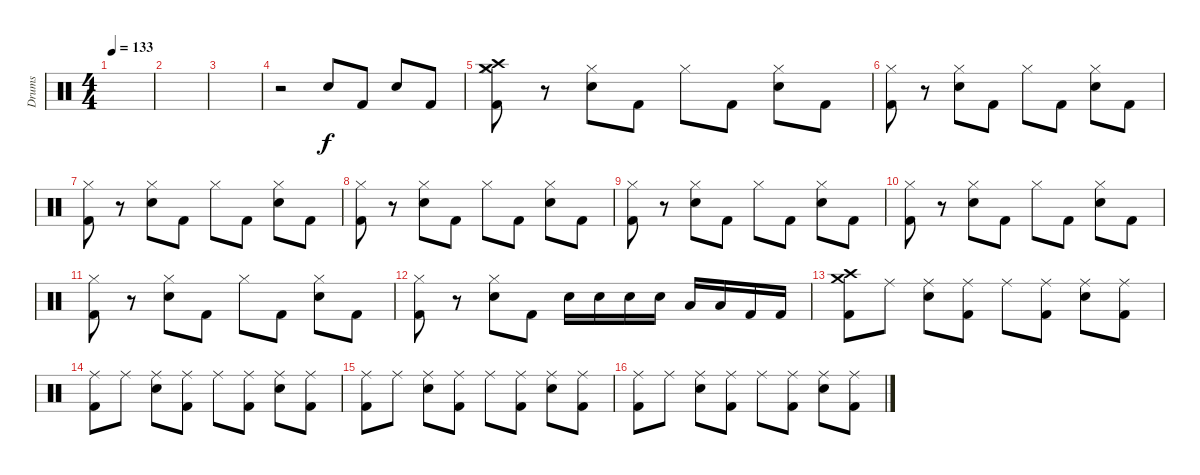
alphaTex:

\track ("Drums" "Drums") {instrument percussion}
\staff {score}
\articulation defaults
\ts (4 4)
\tempo 133
\clef neutral
\ks c
|
|
|
r.2 "Snare (hit) 2".8 "Kick (hit) 2".8 "Snare (hit) 2".8 "Kick (hit) 2".8 |
("Crash high (hit)" "Crash medium (hit)" "Hi-Hat (closed)" "Kick (hit) 2").8 r.8 ("Hi-Hat (closed)" "Snare (hit) 2").8 "Kick (hit) 2".8 "Hi-Hat (closed)".8 "Kick (hit) 2".8 ("Hi-Hat (closed)" "Snare (hit) 2").8 "Kick (hit) 2".8 |
("Hi-Hat (closed)" "Kick (hit) 2").8 r.8 ("Hi-Hat (closed)" "Snare (hit) 2").8 "Kick (hit) 2".8 "Hi-Hat (closed)".8 "Kick (hit) 2".8 ("Hi-Hat (closed)" "Snare (hit) 2").8 "Kick (hit) 2".8 |
("Hi-Hat (closed)" "Kick (hit) 2").8 r.8 ("Hi-Hat (closed)" "Snare (hit) 2").8 "Kick (hit) 2".8 "Hi-Hat (closed)".8 "Kick (hit) 2".8 ("Hi-Hat (closed)" "Snare (hit) 2").8 "Kick (hit) 2".8 |
("Hi-Hat (closed)" "Kick (hit) 2").8 r.8 ("Hi-Hat (closed)" "Snare (hit) 2").8 "Kick (hit) 2".8 "Hi-Hat (closed)".8 "Kick (hit) 2".8 ("Hi-Hat (closed)" "Snare (hit) 2").8 "Kick (hit) 2".8 |
("Hi-Hat (closed)" "Kick (hit) 2").8 r.8 ("Hi-Hat (closed)" "Snare (hit) 2").8 "Kick (hit) 2".8 "Hi-Hat (closed)".8 "Kick (hit) 2".8 ("Hi-Hat (closed)" "Snare (hit) 2").8 "Kick (hit) 2".8 |
("Hi-Hat (closed)" "Kick (hit) 2").8 r.8 ("Hi-Hat (closed)" "Snare (hit) 2").8 "Kick (hit) 2".8 "Hi-Hat (closed)".8 "Kick (hit) 2".8 ("Hi-Hat (closed)" "Snare (hit) 2").8 "Kick (hit) 2".8 |
("Hi-Hat (closed)" "Kick (hit) 2").8 r.8 ("Hi-Hat (closed)" "Snare (hit) 2").8 "Kick (hit) 2".8 "Hi-Hat (closed)".8 "Kick (hit) 2".8 ("Hi-Hat (closed)" "Snare (hit) 2").8 "Kick (hit) 2".8 |
("Hi-Hat (closed)" "Kick (hit) 2").8 r.8 ("Hi-Hat (closed)" "Snare (hit) 2").8 "Kick (hit) 2".8 "Snare (hit) 2".16 "Snare (hit) 2".16 "Snare (hit) 2".16 "Snare (hit) 2".16 "Low Tom (hit)".16 "Low Tom (hit)".16 "Kick (hit) 2".16 "Kick (hit) 2".16 |
("Crash high (hit)" "Crash medium (hit)" "Kick (hit) 2").8 "Ride (middle)".8 ("Ride (middle)" "Snare (hit) 2").8 ("Ride (middle)" "Kick (hit) 2").8 "Ride (middle)".8 ("Ride (middle)" "Kick (hit) 2").8 ("Ride (middle)" "Snare (hit) 2").8 ("Ride (middle)" "Kick (hit) 2").8 |
("Ride (middle)" "Kick (hit) 2").8 "Ride (middle)".8 ("Ride (middle)" "Snare (hit) 2").8 ("Ride (middle)" "Kick (hit) 2").8 "Ride (middle)".8 ("Ride (middle)" "Kick (hit) 2").8 ("Ride (middle)" "Snare (hit) 2").8 ("Ride (middle)" "Kick (hit) 2").8 |
("Ride (middle)" "Kick (hit) 2").8 "Ride (middle)".8 ("Ride (middle)" "Snare (hit) 2").8 ("Ride (middle)" "Kick (hit) 2").8 "Ride (middle)".8 ("Ride (middle)" "Kick (hit) 2").8 ("Ride (middle)" "Snare (hit) 2").8 ("Ride (middle)" "Kick (hit) 2").8 |
("Ride (middle)" "Kick (hit) 2").8 "Ride (middle)".8 ("Ride (middle)" "Snare (hit) 2").8 ("Ride (middle)" "Kick (hit) 2").8 "Ride (middle)".8 ("Ride (middle)" "Kick (hit) 2").8 ("Ride (middle)" "Snare (hit) 2").8 ("Ride (middle)" "Kick (hit) 2").8
